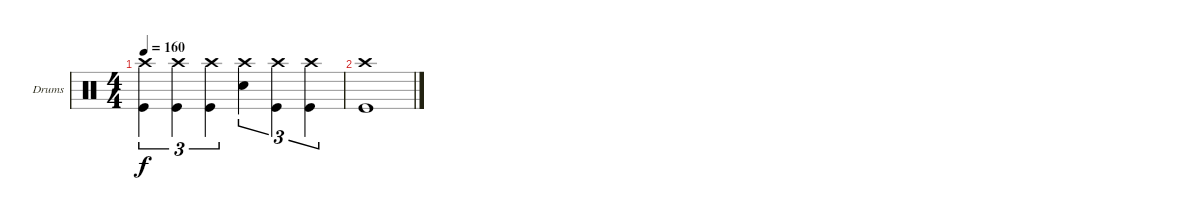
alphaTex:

\defaultSystemsLayout 4
\bracketExtendMode groupsimilarinstruments
\firstSystemTrackNameOrientation horizontal
\otherSystemsTrackNameOrientation horizontal
\track ("Drums" "Drums") {instrument percussion}
\staff {score}
\articulation defaults
\ts (4 4)
\tempo 160
\clef neutral
\ks c
("Kick (hit)" "Crash high (hit)").4{tu (3 2) dy f} ("Kick (hit)" "Crash high (hit)").4{tu (3 2)} ("Kick (hit)" "Crash high (hit)").4{tu (3 2)} ("Crash high (hit)" "Snare (hit) 2").4{tu (3 2)} ("Kick (hit)" "Crash high (hit)").4{tu (3 2)} ("Kick (hit)" "Crash high (hit)").4{tu (3 2)} |
("Kick (hit)" "Crash high (hit)").1
